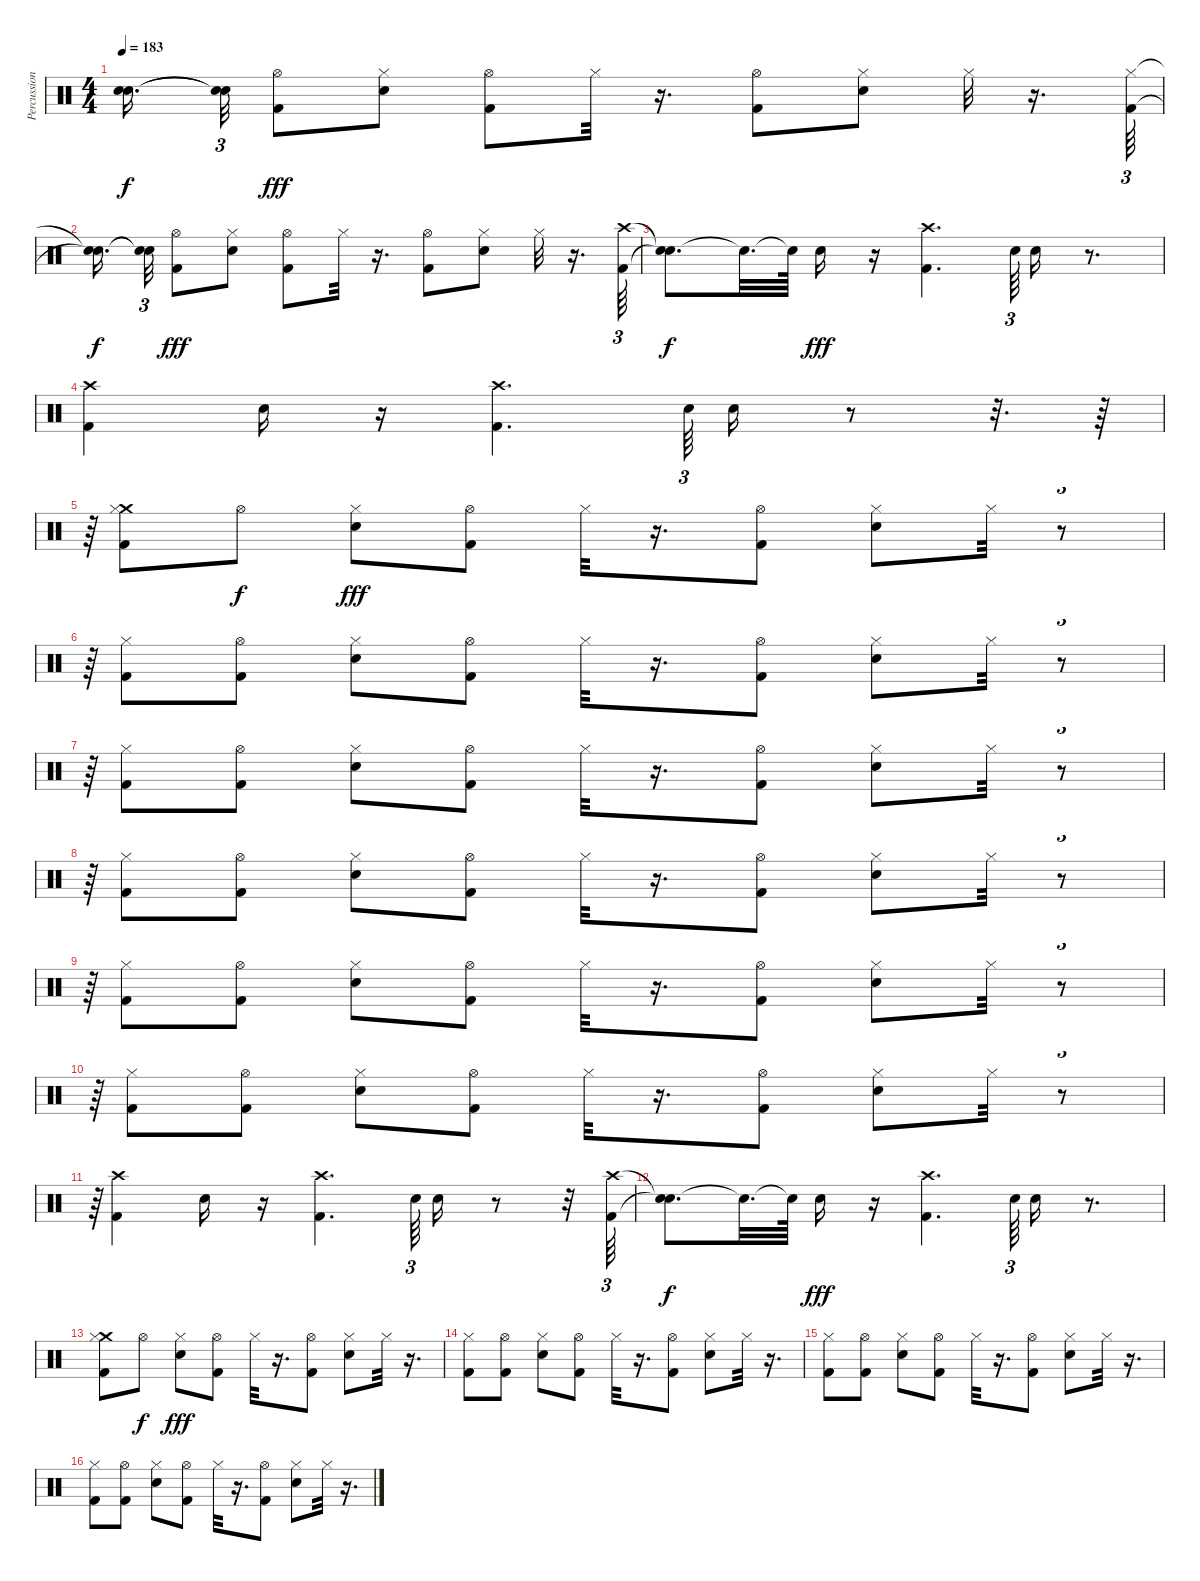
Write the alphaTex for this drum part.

\track ("Percussioni" "Percussion") {instrument percussion}
\staff {score}
\articulation defaults
\ts (4 4)
\tempo 183
\clef neutral
\ks c
("Snare (hit)"{t} "Snare (hit)"{t}).16{d dy f beam splitsecondary} ("Snare (hit)"{t} "Snare (hit)"{t}).32{tu (3 2)} ("Hi-Hat (open)" "Kick (hit) 2").8{dy fff} ("Hi-Hat (closed)" "Snare (hit) 2").8 ("Hi-Hat (open)" "Kick (hit) 2").8 "Hi-Hat (closed)".32 r.16{d} ("Hi-Hat (open)" "Kick (hit) 2").8 ("Hi-Hat (closed)" "Snare (hit) 2").8 "Hi-Hat (closed)".32 r.16{d} ("Hi-Hat (closed)" "Kick (hit) 2").64{tu (3 2)} |
("Snare (hit)"{t} "Snare (hit)"{t}).16{d dy f beam splitsecondary} ("Snare (hit)"{t} "Snare (hit)"{t}).32{tu (3 2)} ("Hi-Hat (open)" "Kick (hit) 2").8{dy fff} ("Hi-Hat (closed)" "Snare (hit) 2").8 ("Hi-Hat (open)" "Kick (hit) 2").8 "Hi-Hat (closed)".32 r.16{d} ("Hi-Hat (open)" "Kick (hit) 2").8 ("Hi-Hat (closed)" "Snare (hit) 2").8 "Hi-Hat (closed)".32 r.16{d} ("Crash high (hit)" "Kick (hit) 2").64{tu (3 2)} |
("Snare (hit)"{t} "Snare (hit)"{t}).8{d dy f} "Snare (hit)"{t}.32{d} "Snare (hit)"{t}.64 "Snare (hit) 2".16{dy fff} r.16 ("Crash high (hit)" "Kick (hit) 2").4{d} "Snare (hit) 2".64{tu (3 2)} "Snare (hit) 2".16 r.8{d} |
("Crash high (hit)" "Kick (hit) 2").4 "Snare (hit) 2".16 r.16 ("Crash high (hit)" "Kick (hit) 2").4{d} "Snare (hit) 2".64{tu (3 2)} "Snare (hit) 2".16 r.8 r.32{d} r.64 |
r.64{tu (3 2)} ("Crash medium (hit)" "Hi-Hat (closed)" "Kick (hit) 2").8 "Hi-Hat (open)".8{dy f} ("Hi-Hat (closed)" "Snare (hit) 2").8{dy fff} ("Hi-Hat (open)" "Kick (hit) 2").8 "Hi-Hat (closed)".32 r.16{d} ("Hi-Hat (open)" "Kick (hit) 2").8 ("Hi-Hat (closed)" "Snare (hit) 2").8 "Hi-Hat (closed)".32 r.8{tu (3 2)} |
r.64{tu (3 2)} ("Hi-Hat (closed)" "Kick (hit) 2").8 ("Hi-Hat (open)" "Kick (hit) 2").8 ("Hi-Hat (closed)" "Snare (hit) 2").8 ("Hi-Hat (open)" "Kick (hit) 2").8 "Hi-Hat (closed)".32 r.16{d} ("Hi-Hat (open)" "Kick (hit) 2").8 ("Hi-Hat (closed)" "Snare (hit) 2").8 "Hi-Hat (closed)".32 r.8{tu (3 2)} |
r.64{tu (3 2)} ("Hi-Hat (closed)" "Kick (hit) 2").8 ("Hi-Hat (open)" "Kick (hit) 2").8 ("Hi-Hat (closed)" "Snare (hit) 2").8 ("Hi-Hat (open)" "Kick (hit) 2").8 "Hi-Hat (closed)".32 r.16{d} ("Hi-Hat (open)" "Kick (hit) 2").8 ("Hi-Hat (closed)" "Snare (hit) 2").8 "Hi-Hat (closed)".32 r.8{tu (3 2)} |
r.64{tu (3 2)} ("Hi-Hat (closed)" "Kick (hit) 2").8 ("Hi-Hat (open)" "Kick (hit) 2").8 ("Hi-Hat (closed)" "Snare (hit) 2").8 ("Hi-Hat (open)" "Kick (hit) 2").8 "Hi-Hat (closed)".32 r.16{d} ("Hi-Hat (open)" "Kick (hit) 2").8 ("Hi-Hat (closed)" "Snare (hit) 2").8 "Hi-Hat (closed)".32 r.8{tu (3 2)} |
r.64{tu (3 2)} ("Hi-Hat (closed)" "Kick (hit) 2").8 ("Hi-Hat (open)" "Kick (hit) 2").8 ("Hi-Hat (closed)" "Snare (hit) 2").8 ("Hi-Hat (open)" "Kick (hit) 2").8 "Hi-Hat (closed)".32 r.16{d} ("Hi-Hat (open)" "Kick (hit) 2").8 ("Hi-Hat (closed)" "Snare (hit) 2").8 "Hi-Hat (closed)".32 r.8{tu (3 2)} |
r.64{tu (3 2)} ("Hi-Hat (closed)" "Kick (hit) 2").8 ("Hi-Hat (open)" "Kick (hit) 2").8 ("Hi-Hat (closed)" "Snare (hit) 2").8 ("Hi-Hat (open)" "Kick (hit) 2").8 "Hi-Hat (closed)".32 r.16{d} ("Hi-Hat (open)" "Kick (hit) 2").8 ("Hi-Hat (closed)" "Snare (hit) 2").8 "Hi-Hat (closed)".32 r.8{tu (3 2)} |
r.64{tu (3 2)} ("Crash high (hit)" "Kick (hit) 2").4 "Snare (hit) 2".16 r.16 ("Crash high (hit)" "Kick (hit) 2").4{d} "Snare (hit) 2".64{tu (3 2)} "Snare (hit) 2".16 r.8 r.32 ("Crash high (hit)" "Kick (hit) 2").64{tu (3 2)} |
("Snare (hit)"{t} "Snare (hit)"{t}).8{d dy f} "Snare (hit)"{t}.32{d} "Snare (hit)"{t}.64 "Snare (hit) 2".16{dy fff} r.16 ("Crash high (hit)" "Kick (hit) 2").4{d} "Snare (hit) 2".64{tu (3 2)} "Snare (hit) 2".16 r.8{d} |
("Crash medium (hit)" "Hi-Hat (closed)" "Kick (hit) 2").8 "Hi-Hat (open)".8{dy f} ("Hi-Hat (closed)" "Snare (hit) 2").8{dy fff} ("Hi-Hat (open)" "Kick (hit) 2").8 "Hi-Hat (closed)".32 r.16{d} ("Hi-Hat (open)" "Kick (hit) 2").8 ("Hi-Hat (closed)" "Snare (hit) 2").8 "Hi-Hat (closed)".32 r.16{d} |
("Hi-Hat (closed)" "Kick (hit) 2").8 ("Hi-Hat (open)" "Kick (hit) 2").8 ("Hi-Hat (closed)" "Snare (hit) 2").8 ("Hi-Hat (open)" "Kick (hit) 2").8 "Hi-Hat (closed)".32 r.16{d} ("Hi-Hat (open)" "Kick (hit) 2").8 ("Hi-Hat (closed)" "Snare (hit) 2").8 "Hi-Hat (closed)".32 r.16{d} |
("Hi-Hat (closed)" "Kick (hit) 2").8 ("Hi-Hat (open)" "Kick (hit) 2").8 ("Hi-Hat (closed)" "Snare (hit) 2").8 ("Hi-Hat (open)" "Kick (hit) 2").8 "Hi-Hat (closed)".32 r.16{d} ("Hi-Hat (open)" "Kick (hit) 2").8 ("Hi-Hat (closed)" "Snare (hit) 2").8 "Hi-Hat (closed)".32 r.16{d} |
("Hi-Hat (closed)" "Kick (hit) 2").8 ("Hi-Hat (open)" "Kick (hit) 2").8 ("Hi-Hat (closed)" "Snare (hit) 2").8 ("Hi-Hat (open)" "Kick (hit) 2").8 "Hi-Hat (closed)".32 r.16{d} ("Hi-Hat (open)" "Kick (hit) 2").8 ("Hi-Hat (closed)" "Snare (hit) 2").8 "Hi-Hat (closed)".32 r.16{d}
